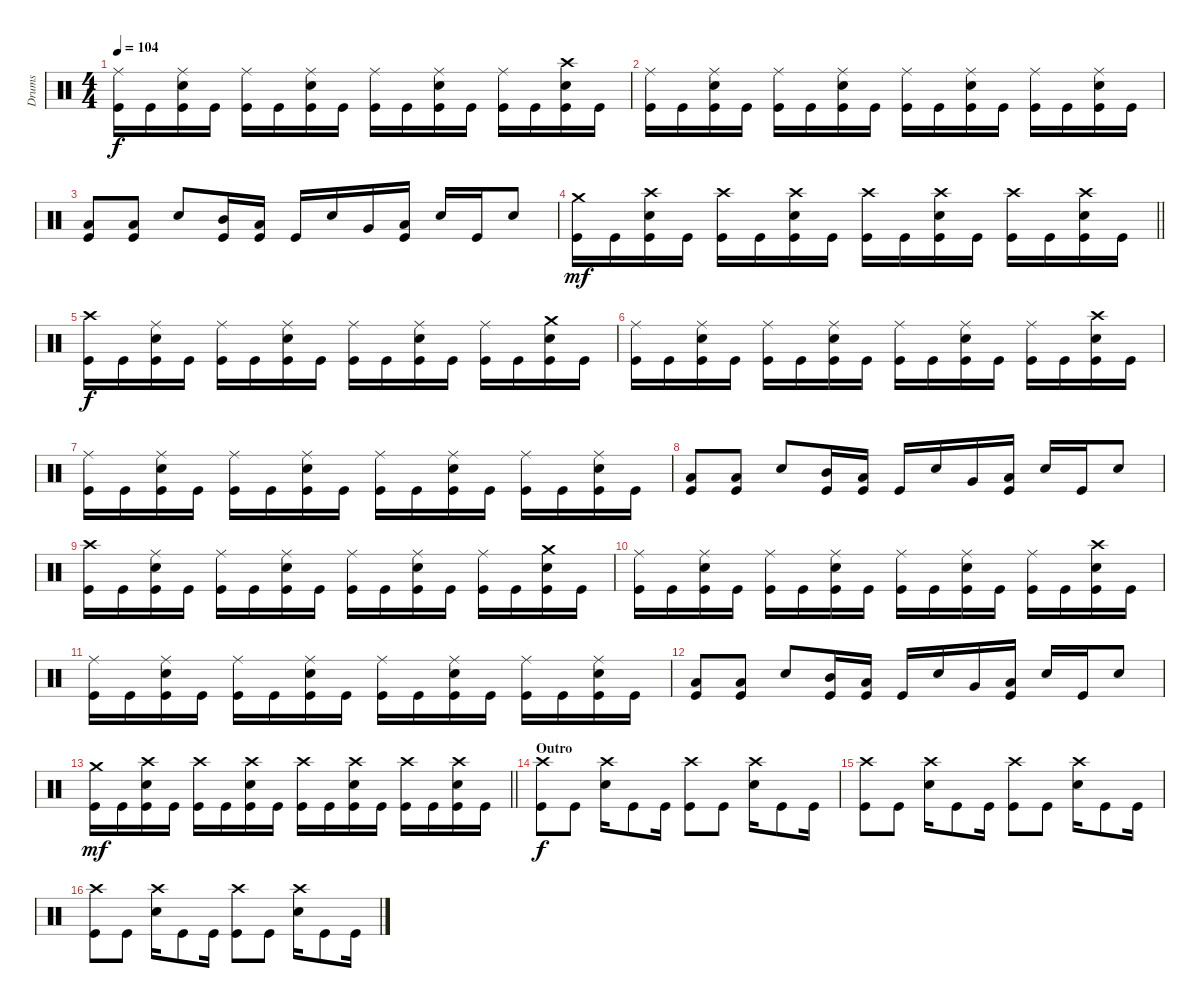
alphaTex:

\track ("Drums" "Drums") {instrument percussion}
\staff {score}
\articulation defaults
\ts (4 4)
\tempo 104
\clef neutral
\ks c
("Ride (middle)" "Kick (hit)").16{dy f} "Kick (hit)".16 ("Ride (middle)" "Electric Snare (hit)" "Kick (hit)").16 "Kick (hit)".16 ("Ride (middle)" "Kick (hit)").16 "Kick (hit)".16 ("Ride (middle)" "Electric Snare (hit)" "Kick (hit)").16 "Kick (hit)".16 ("Ride (middle)" "Kick (hit)").16 "Kick (hit)".16 ("Ride (middle)" "Electric Snare (hit)" "Kick (hit)").16 "Kick (hit)".16 ("Ride (middle)" "Kick (hit)").16 "Kick (hit)".16 ("Crash high (hit)" "Electric Snare (hit)" "Kick (hit)").16 "Kick (hit)".16 |
("Ride (middle)" "Kick (hit)").16 "Kick (hit)".16 ("Ride (middle)" "Electric Snare (hit)" "Kick (hit)").16 "Kick (hit)".16 ("Ride (middle)" "Kick (hit)").16 "Kick (hit)".16 ("Ride (middle)" "Electric Snare (hit)" "Kick (hit)").16 "Kick (hit)".16 ("Ride (middle)" "Kick (hit)").16 "Kick (hit)".16 ("Ride (middle)" "Electric Snare (hit)" "Kick (hit)").16 "Kick (hit)".16 ("Ride (middle)" "Kick (hit)").16 "Kick (hit)".16 ("Ride (middle)" "Electric Snare (hit)" "Kick (hit)").16 "Kick (hit)".16 |
("Low Tom (hit)" "Kick (hit)").8 ("Low Tom (hit)" "Kick (hit)").8 "Electric Snare (hit)".8 ("Mid Tom (hit)" "Kick (hit)").16 ("Low Tom (hit)" "Kick (hit)").16 "Kick (hit)".16 "Electric Snare (hit)".16 "Very Low Tom (hit)".16 ("Low Floor Tom (hit)" "Kick (hit)").16 "Electric Snare (hit)".16 "Kick (hit)".16 "Electric Snare (hit)".8 |
\barLineRight lightlight
("Crash medium (hit)" "Kick (hit)").16{dy mf} "Kick (hit)".16 ("Crash high (hit)" "Electric Snare (hit)" "Kick (hit)").16 "Kick (hit)".16 ("Crash high (hit)" "Kick (hit)").16 "Kick (hit)".16 ("Crash high (hit)" "Electric Snare (hit)" "Kick (hit)").16 "Kick (hit)".16 ("Crash high (hit)" "Kick (hit)").16 "Kick (hit)".16 ("Crash high (hit)" "Electric Snare (hit)" "Kick (hit)").16 "Kick (hit)".16 ("Crash high (hit)" "Kick (hit)").16 "Kick (hit)".16 ("Crash high (hit)" "Electric Snare (hit)" "Kick (hit)").16 "Kick (hit)".16 |
("Crash high (hit)" "Kick (hit)").16{dy f} "Kick (hit)".16 ("Ride (middle)" "Electric Snare (hit)" "Kick (hit)").16 "Kick (hit)".16 ("Ride (middle)" "Kick (hit)").16 "Kick (hit)".16 ("Ride (middle)" "Electric Snare (hit)" "Kick (hit)").16 "Kick (hit)".16 ("Ride (middle)" "Kick (hit)").16 "Kick (hit)".16 ("Ride (middle)" "Electric Snare (hit)" "Kick (hit)").16 "Kick (hit)".16 ("Ride (middle)" "Kick (hit)").16 "Kick (hit)".16 ("Crash medium (hit)" "Electric Snare (hit)" "Kick (hit)").16 "Kick (hit)".16 |
("Ride (middle)" "Kick (hit)").16 "Kick (hit)".16 ("Ride (middle)" "Electric Snare (hit)" "Kick (hit)").16 "Kick (hit)".16 ("Ride (middle)" "Kick (hit)").16 "Kick (hit)".16 ("Ride (middle)" "Electric Snare (hit)" "Kick (hit)").16 "Kick (hit)".16 ("Ride (middle)" "Kick (hit)").16 "Kick (hit)".16 ("Ride (middle)" "Electric Snare (hit)" "Kick (hit)").16 "Kick (hit)".16 ("Ride (middle)" "Kick (hit)").16 "Kick (hit)".16 ("Crash high (hit)" "Electric Snare (hit)" "Kick (hit)").16 "Kick (hit)".16 |
("Ride (middle)" "Kick (hit)").16 "Kick (hit)".16 ("Ride (middle)" "Electric Snare (hit)" "Kick (hit)").16 "Kick (hit)".16 ("Ride (middle)" "Kick (hit)").16 "Kick (hit)".16 ("Ride (middle)" "Electric Snare (hit)" "Kick (hit)").16 "Kick (hit)".16 ("Ride (middle)" "Kick (hit)").16 "Kick (hit)".16 ("Ride (middle)" "Electric Snare (hit)" "Kick (hit)").16 "Kick (hit)".16 ("Ride (middle)" "Kick (hit)").16 "Kick (hit)".16 ("Ride (middle)" "Electric Snare (hit)" "Kick (hit)").16 "Kick (hit)".16 |
("Low Tom (hit)" "Kick (hit)").8 ("Low Tom (hit)" "Kick (hit)").8 "Electric Snare (hit)".8 ("Mid Tom (hit)" "Kick (hit)").16 ("Low Tom (hit)" "Kick (hit)").16 "Kick (hit)".16 "Electric Snare (hit)".16 "Very Low Tom (hit)".16 ("Low Floor Tom (hit)" "Kick (hit)").16 "Electric Snare (hit)".16 "Kick (hit)".16 "Electric Snare (hit)".8 |
("Crash high (hit)" "Kick (hit)").16 "Kick (hit)".16 ("Ride (middle)" "Electric Snare (hit)" "Kick (hit)").16 "Kick (hit)".16 ("Ride (middle)" "Kick (hit)").16 "Kick (hit)".16 ("Ride (middle)" "Electric Snare (hit)" "Kick (hit)").16 "Kick (hit)".16 ("Ride (middle)" "Kick (hit)").16 "Kick (hit)".16 ("Ride (middle)" "Electric Snare (hit)" "Kick (hit)").16 "Kick (hit)".16 ("Ride (middle)" "Kick (hit)").16 "Kick (hit)".16 ("Crash medium (hit)" "Electric Snare (hit)" "Kick (hit)").16 "Kick (hit)".16 |
("Ride (middle)" "Kick (hit)").16 "Kick (hit)".16 ("Ride (middle)" "Electric Snare (hit)" "Kick (hit)").16 "Kick (hit)".16 ("Ride (middle)" "Kick (hit)").16 "Kick (hit)".16 ("Ride (middle)" "Electric Snare (hit)" "Kick (hit)").16 "Kick (hit)".16 ("Ride (middle)" "Kick (hit)").16 "Kick (hit)".16 ("Ride (middle)" "Electric Snare (hit)" "Kick (hit)").16 "Kick (hit)".16 ("Ride (middle)" "Kick (hit)").16 "Kick (hit)".16 ("Crash high (hit)" "Electric Snare (hit)" "Kick (hit)").16 "Kick (hit)".16 |
("Ride (middle)" "Kick (hit)").16 "Kick (hit)".16 ("Ride (middle)" "Electric Snare (hit)" "Kick (hit)").16 "Kick (hit)".16 ("Ride (middle)" "Kick (hit)").16 "Kick (hit)".16 ("Ride (middle)" "Electric Snare (hit)" "Kick (hit)").16 "Kick (hit)".16 ("Ride (middle)" "Kick (hit)").16 "Kick (hit)".16 ("Ride (middle)" "Electric Snare (hit)" "Kick (hit)").16 "Kick (hit)".16 ("Ride (middle)" "Kick (hit)").16 "Kick (hit)".16 ("Ride (middle)" "Electric Snare (hit)" "Kick (hit)").16 "Kick (hit)".16 |
("Low Tom (hit)" "Kick (hit)").8 ("Low Tom (hit)" "Kick (hit)").8 "Electric Snare (hit)".8 ("Mid Tom (hit)" "Kick (hit)").16 ("Low Tom (hit)" "Kick (hit)").16 "Kick (hit)".16 "Electric Snare (hit)".16 "Very Low Tom (hit)".16 ("Low Floor Tom (hit)" "Kick (hit)").16 "Electric Snare (hit)".16 "Kick (hit)".16 "Electric Snare (hit)".8 |
\barLineRight lightlight
("Crash medium (hit)" "Kick (hit)").16{dy mf} "Kick (hit)".16 ("Crash high (hit)" "Electric Snare (hit)" "Kick (hit)").16 "Kick (hit)".16 ("Crash high (hit)" "Kick (hit)").16 "Kick (hit)".16 ("Crash high (hit)" "Electric Snare (hit)" "Kick (hit)").16 "Kick (hit)".16 ("Crash high (hit)" "Kick (hit)").16 "Kick (hit)".16 ("Crash high (hit)" "Electric Snare (hit)" "Kick (hit)").16 "Kick (hit)".16 ("Crash high (hit)" "Kick (hit)").16 "Kick (hit)".16 ("Crash high (hit)" "Electric Snare (hit)" "Kick (hit)").16 "Kick (hit)".16 |
\section ("" "Outro")
("Crash high (hit)" "Kick (hit)").8{dy f} "Kick (hit)".8 ("Crash high (hit)" "Electric Snare (hit)").16 "Kick (hit)".8 "Kick (hit)".16 ("Crash high (hit)" "Kick (hit)").8 "Kick (hit)".8 ("Crash high (hit)" "Electric Snare (hit)").16 "Kick (hit)".8 "Kick (hit)".16 |
("Crash high (hit)" "Kick (hit)").8 "Kick (hit)".8 ("Crash high (hit)" "Electric Snare (hit)").16 "Kick (hit)".8 "Kick (hit)".16 ("Crash high (hit)" "Kick (hit)").8 "Kick (hit)".8 ("Crash high (hit)" "Electric Snare (hit)").16 "Kick (hit)".8 "Kick (hit)".16 |
("Crash high (hit)" "Kick (hit)").8 "Kick (hit)".8 ("Crash high (hit)" "Electric Snare (hit)").16 "Kick (hit)".8 "Kick (hit)".16 ("Crash high (hit)" "Kick (hit)").8 "Kick (hit)".8 ("Crash high (hit)" "Electric Snare (hit)").16 "Kick (hit)".8 "Kick (hit)".16
